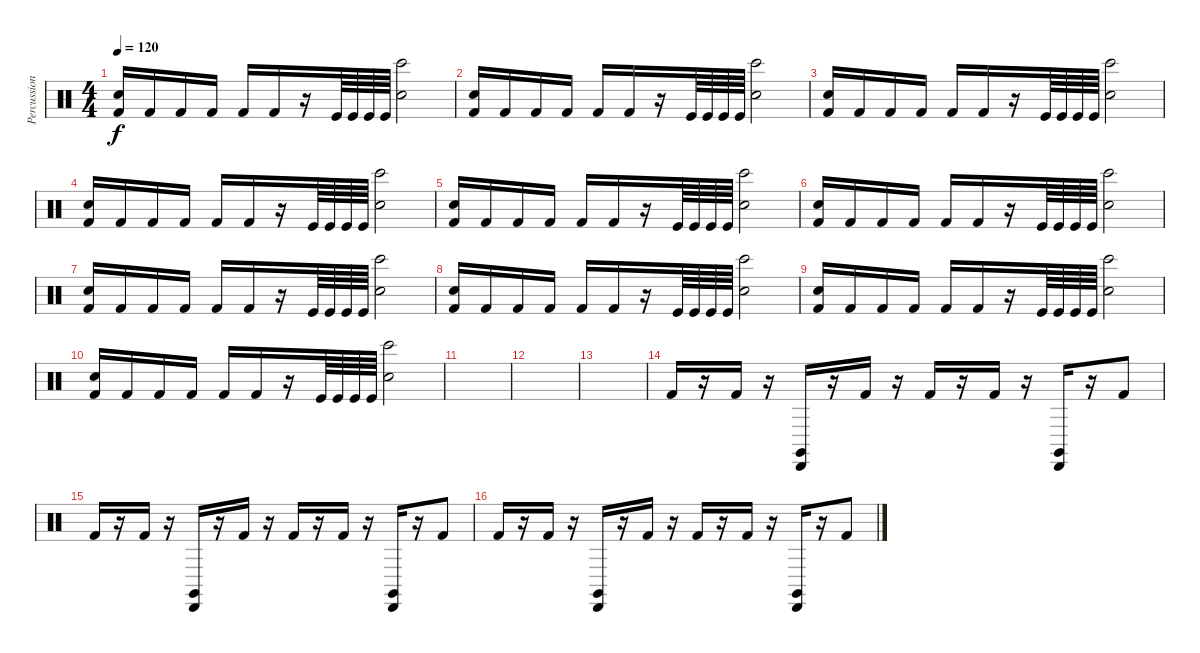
\track ("Percussion" "Percussion") {instrument percussion}
\staff {score}
\articulation defaults
\ts (4 4)
\tempo 120
\clef neutral
\ks c
("Kick (hit) 2" "Snare (hit) 2").16{dy f} "Kick (hit) 2".16 "Kick (hit) 2".16 "Kick (hit) 2".16 "Kick (hit) 2".16 "Kick (hit) 2".16 r.16 "Kick (hit)".64 "Kick (hit)".64 "Kick (hit)".64 "Kick (hit)".64 ("Bongo High (hit)" "Snare (hit) 2").2 |
("Kick (hit) 2" "Snare (hit) 2").16 "Kick (hit) 2".16 "Kick (hit) 2".16 "Kick (hit) 2".16 "Kick (hit) 2".16 "Kick (hit) 2".16 r.16 "Kick (hit)".64 "Kick (hit)".64 "Kick (hit)".64 "Kick (hit)".64 ("Bongo High (hit)" "Snare (hit) 2").2 |
("Kick (hit) 2" "Snare (hit) 2").16 "Kick (hit) 2".16 "Kick (hit) 2".16 "Kick (hit) 2".16 "Kick (hit) 2".16 "Kick (hit) 2".16 r.16 "Kick (hit)".64 "Kick (hit)".64 "Kick (hit)".64 "Kick (hit)".64 ("Bongo High (hit)" "Snare (hit) 2").2 |
("Kick (hit) 2" "Snare (hit) 2").16 "Kick (hit) 2".16 "Kick (hit) 2".16 "Kick (hit) 2".16 "Kick (hit) 2".16 "Kick (hit) 2".16 r.16 "Kick (hit)".64 "Kick (hit)".64 "Kick (hit)".64 "Kick (hit)".64 ("Bongo High (hit)" "Snare (hit) 2").2 |
("Kick (hit) 2" "Snare (hit) 2").16 "Kick (hit) 2".16 "Kick (hit) 2".16 "Kick (hit) 2".16 "Kick (hit) 2".16 "Kick (hit) 2".16 r.16 "Kick (hit)".64 "Kick (hit)".64 "Kick (hit)".64 "Kick (hit)".64 ("Bongo High (hit)" "Snare (hit) 2").2 |
("Kick (hit) 2" "Snare (hit) 2").16 "Kick (hit) 2".16 "Kick (hit) 2".16 "Kick (hit) 2".16 "Kick (hit) 2".16 "Kick (hit) 2".16 r.16 "Kick (hit)".64 "Kick (hit)".64 "Kick (hit)".64 "Kick (hit)".64 ("Bongo High (hit)" "Snare (hit) 2").2 |
("Kick (hit) 2" "Snare (hit) 2").16 "Kick (hit) 2".16 "Kick (hit) 2".16 "Kick (hit) 2".16 "Kick (hit) 2".16 "Kick (hit) 2".16 r.16 "Kick (hit)".64 "Kick (hit)".64 "Kick (hit)".64 "Kick (hit)".64 ("Bongo High (hit)" "Snare (hit) 2").2 |
("Kick (hit) 2" "Snare (hit) 2").16 "Kick (hit) 2".16 "Kick (hit) 2".16 "Kick (hit) 2".16 "Kick (hit) 2".16 "Kick (hit) 2".16 r.16 "Kick (hit)".64 "Kick (hit)".64 "Kick (hit)".64 "Kick (hit)".64 ("Bongo High (hit)" "Snare (hit) 2").2 |
("Kick (hit) 2" "Snare (hit) 2").16 "Kick (hit) 2".16 "Kick (hit) 2".16 "Kick (hit) 2".16 "Kick (hit) 2".16 "Kick (hit) 2".16 r.16 "Kick (hit)".64 "Kick (hit)".64 "Kick (hit)".64 "Kick (hit)".64 ("Bongo High (hit)" "Snare (hit) 2").2 |
("Kick (hit) 2" "Snare (hit) 2").16 "Kick (hit) 2".16 "Kick (hit) 2".16 "Kick (hit) 2".16 "Kick (hit) 2".16 "Kick (hit) 2".16 r.16 "Kick (hit)".64 "Kick (hit)".64 "Kick (hit)".64 "Kick (hit)".64 ("Bongo High (hit)" "Snare (hit) 2").2 |
|
|
|
"Kick (hit) 2".16 r.16 "Kick (hit) 2".16 r.16 ("Cabasa (hit)" "Claves (hit)").16 r.16 "Kick (hit) 2".16 r.16 "Kick (hit) 2".16 r.16 "Kick (hit) 2".16 r.16 ("Cabasa (hit)" "Claves (hit)").16 r.16 "Kick (hit) 2".8 |
"Kick (hit) 2".16 r.16 "Kick (hit) 2".16 r.16 ("Cabasa (hit)" "Claves (hit)").16 r.16 "Kick (hit) 2".16 r.16 "Kick (hit) 2".16 r.16 "Kick (hit) 2".16 r.16 ("Cabasa (hit)" "Claves (hit)").16 r.16 "Kick (hit) 2".8 |
"Kick (hit) 2".16 r.16 "Kick (hit) 2".16 r.16 ("Cabasa (hit)" "Claves (hit)").16 r.16 "Kick (hit) 2".16 r.16 "Kick (hit) 2".16 r.16 "Kick (hit) 2".16 r.16 ("Cabasa (hit)" "Claves (hit)").16 r.16 "Kick (hit) 2".8
